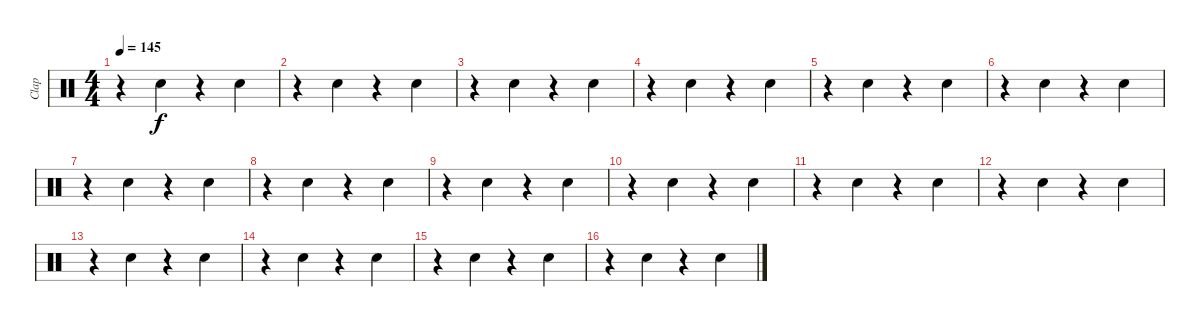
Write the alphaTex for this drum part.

\track ("Clap" "Clap") {instrument percussion}
\staff {score}
\articulation defaults
\ts (4 4)
\tempo 145
\clef neutral
\ks c
r.4{dy f} "Hand Clap (hit)".4 r.4 "Hand Clap (hit)".4 |
r.4 "Hand Clap (hit)".4 r.4 "Hand Clap (hit)".4 |
r.4 "Hand Clap (hit)".4 r.4 "Hand Clap (hit)".4 |
r.4 "Hand Clap (hit)".4 r.4 "Hand Clap (hit)".4 |
r.4 "Hand Clap (hit)".4 r.4 "Hand Clap (hit)".4 |
r.4 "Hand Clap (hit)".4 r.4 "Hand Clap (hit)".4 |
r.4 "Hand Clap (hit)".4 r.4 "Hand Clap (hit)".4 |
r.4 "Hand Clap (hit)".4 r.4 "Hand Clap (hit)".4 |
r.4 "Hand Clap (hit)".4 r.4 "Hand Clap (hit)".4 |
r.4 "Hand Clap (hit)".4 r.4 "Hand Clap (hit)".4 |
r.4 "Hand Clap (hit)".4 r.4 "Hand Clap (hit)".4 |
r.4 "Hand Clap (hit)".4 r.4 "Hand Clap (hit)".4 |
r.4 "Hand Clap (hit)".4 r.4 "Hand Clap (hit)".4 |
r.4 "Hand Clap (hit)".4 r.4 "Hand Clap (hit)".4 |
r.4 "Hand Clap (hit)".4 r.4 "Hand Clap (hit)".4 |
r.4 "Hand Clap (hit)".4 r.4 "Hand Clap (hit)".4
